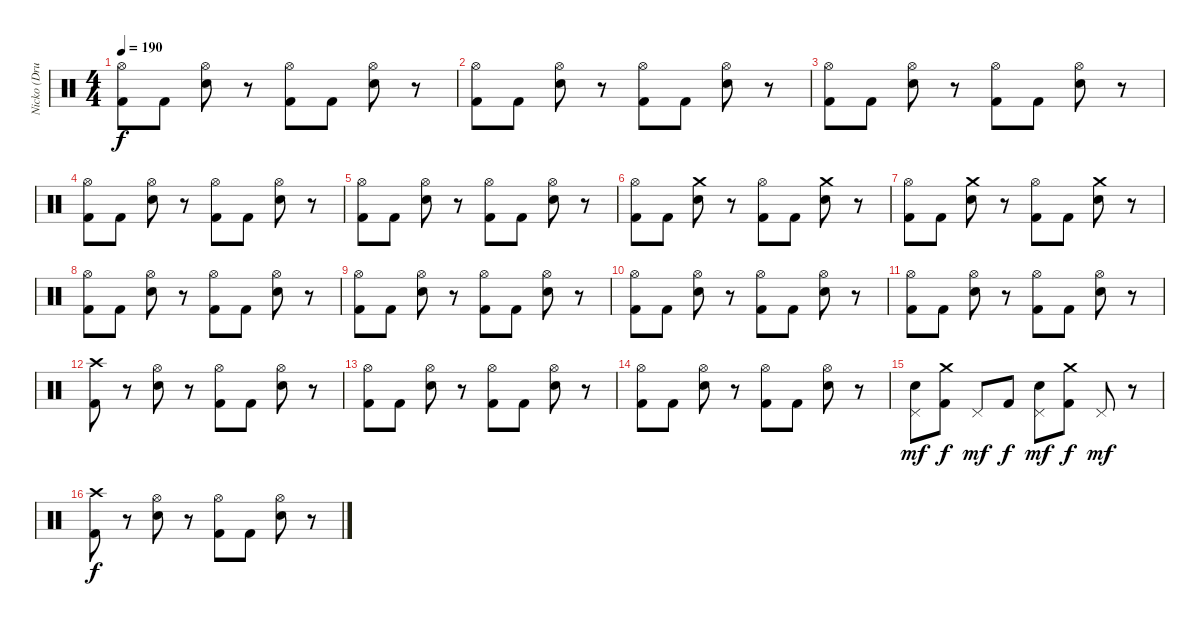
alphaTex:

\track ("Nicko (Drums)" "Nicko (Dru") {instrument percussion}
\staff {score}
\articulation defaults
\ts (4 4)
\tempo 190
\clef neutral
\ks c
("Hi-Hat (open)" "Kick (hit) 2").8{dy f} "Kick (hit) 2".8 ("Hi-Hat (open)" "Snare (hit) 2").8 r.8 ("Hi-Hat (open)" "Kick (hit) 2").8 "Kick (hit) 2".8 ("Hi-Hat (open)" "Snare (hit) 2").8 r.8 |
("Hi-Hat (open)" "Kick (hit) 2").8 "Kick (hit) 2".8 ("Hi-Hat (open)" "Snare (hit) 2").8 r.8 ("Hi-Hat (open)" "Kick (hit) 2").8 "Kick (hit) 2".8 ("Hi-Hat (open)" "Snare (hit) 2").8 r.8 |
("Hi-Hat (open)" "Kick (hit) 2").8 "Kick (hit) 2".8 ("Hi-Hat (open)" "Snare (hit) 2").8 r.8 ("Hi-Hat (open)" "Kick (hit) 2").8 "Kick (hit) 2".8 ("Hi-Hat (open)" "Snare (hit) 2").8 r.8 |
("Hi-Hat (open)" "Kick (hit) 2").8 "Kick (hit) 2".8 ("Hi-Hat (open)" "Snare (hit) 2").8 r.8 ("Hi-Hat (open)" "Kick (hit) 2").8 "Kick (hit) 2".8 ("Hi-Hat (open)" "Snare (hit) 2").8 r.8 |
("Hi-Hat (open)" "Kick (hit) 2").8 "Kick (hit) 2".8 ("Hi-Hat (open)" "Snare (hit) 2").8 r.8 ("Hi-Hat (open)" "Kick (hit) 2").8 "Kick (hit) 2".8 ("Hi-Hat (open)" "Snare (hit) 2").8 r.8 |
("Hi-Hat (open)" "Kick (hit) 2").8 "Kick (hit) 2".8 ("Crash medium (hit)" "Snare (hit) 2").8 r.8 ("Hi-Hat (open)" "Kick (hit) 2").8 "Kick (hit) 2".8 ("Crash medium (hit)" "Snare (hit) 2").8 r.8 |
("Hi-Hat (open)" "Kick (hit) 2").8 "Kick (hit) 2".8 ("Crash medium (hit)" "Snare (hit) 2").8 r.8 ("Hi-Hat (open)" "Kick (hit) 2").8 "Kick (hit) 2".8 ("Crash medium (hit)" "Snare (hit) 2").8 r.8 |
("Hi-Hat (open)" "Kick (hit) 2").8 "Kick (hit) 2".8 ("Hi-Hat (open)" "Snare (hit) 2").8 r.8 ("Hi-Hat (open)" "Kick (hit) 2").8 "Kick (hit) 2".8 ("Hi-Hat (open)" "Snare (hit) 2").8 r.8 |
("Hi-Hat (open)" "Kick (hit) 2").8 "Kick (hit) 2".8 ("Hi-Hat (open)" "Snare (hit) 2").8 r.8 ("Hi-Hat (open)" "Kick (hit) 2").8 "Kick (hit) 2".8 ("Hi-Hat (open)" "Snare (hit) 2").8 r.8 |
("Hi-Hat (open)" "Kick (hit) 2").8 "Kick (hit) 2".8 ("Hi-Hat (open)" "Snare (hit) 2").8 r.8 ("Hi-Hat (open)" "Kick (hit) 2").8 "Kick (hit) 2".8 ("Hi-Hat (open)" "Snare (hit) 2").8 r.8 |
("Hi-Hat (open)" "Kick (hit) 2").8 "Kick (hit) 2".8 ("Hi-Hat (open)" "Snare (hit) 2").8 r.8 ("Hi-Hat (open)" "Kick (hit) 2").8 "Kick (hit) 2".8 ("Hi-Hat (open)" "Snare (hit) 2").8 r.8 |
("Crash high (hit)" "Kick (hit) 2").8 r.8 ("Hi-Hat (open)" "Snare (hit) 2").8 r.8 ("Hi-Hat (open)" "Kick (hit) 2").8 "Kick (hit) 2".8 ("Hi-Hat (open)" "Snare (hit) 2").8 r.8 |
("Hi-Hat (open)" "Kick (hit) 2").8 "Kick (hit) 2".8 ("Hi-Hat (open)" "Snare (hit) 2").8 r.8 ("Hi-Hat (open)" "Kick (hit) 2").8 "Kick (hit) 2".8 ("Hi-Hat (open)" "Snare (hit) 2").8 r.8 |
("Hi-Hat (open)" "Kick (hit) 2").8 "Kick (hit) 2".8 ("Hi-Hat (open)" "Snare (hit) 2").8 r.8 ("Hi-Hat (open)" "Kick (hit) 2").8 "Kick (hit) 2".8 ("Hi-Hat (open)" "Snare (hit) 2").8 r.8 |
("Pedal Hi-Hat (hit)" "Snare (hit) 2").8{dy mf} ("Crash medium (hit)" "Kick (hit) 2").8{dy f} "Pedal Hi-Hat (hit)".8{dy mf} "Kick (hit) 2".8{dy f} ("Pedal Hi-Hat (hit)" "Snare (hit) 2").8{dy mf} ("Crash medium (hit)" "Kick (hit) 2").8{dy f} "Pedal Hi-Hat (hit)".8{dy mf} r.8 |
("Crash high (hit)" "Kick (hit) 2").8{dy f} r.8 ("Hi-Hat (open)" "Snare (hit) 2").8 r.8 ("Hi-Hat (open)" "Kick (hit) 2").8 "Kick (hit) 2".8 ("Hi-Hat (open)" "Snare (hit) 2").8 r.8
